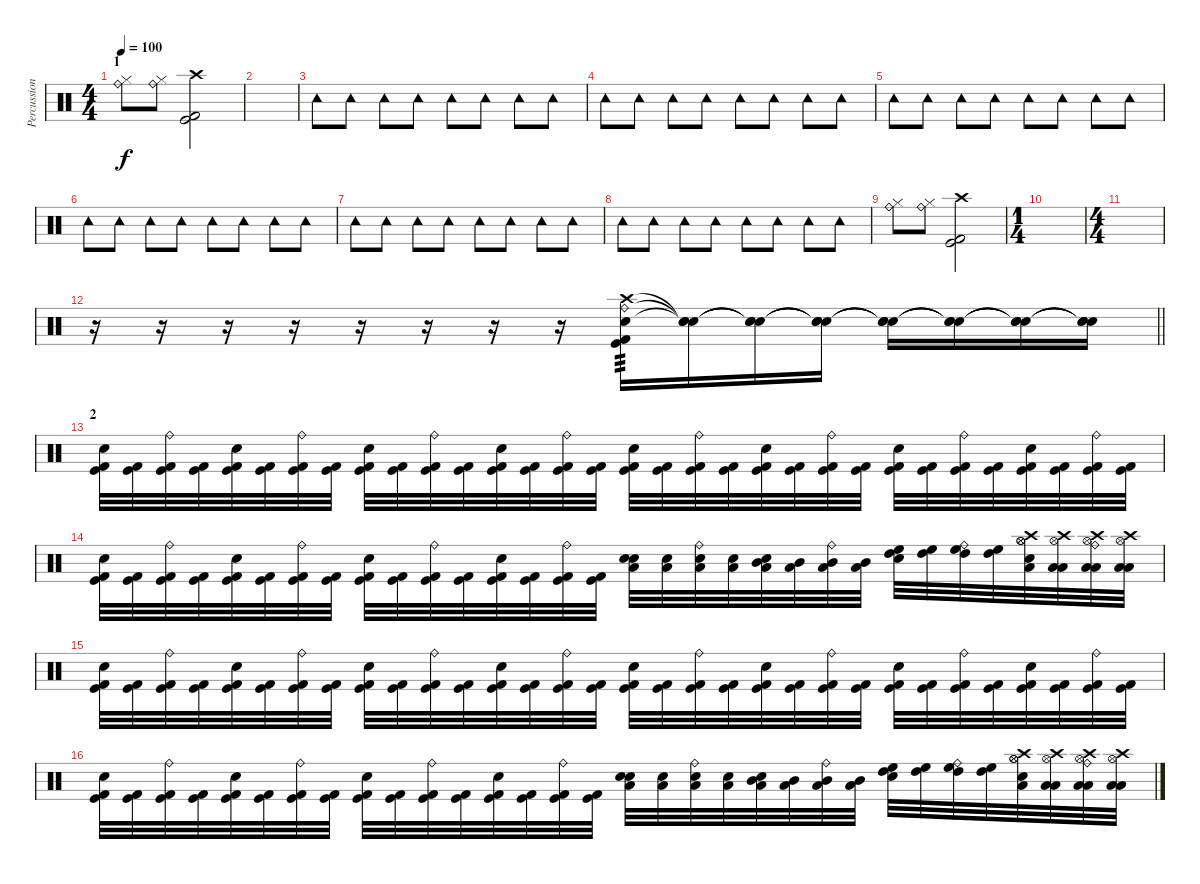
\track ("Percussion" "Percussion") {instrument percussion}
\staff {score}
\articulation defaults
\ts (4 4)
\section ("" "1")
\tempo 100
\clef neutral
\ks c
("Ride (bell)" "Hi-Hat (closed)").8{dy f} ("Ride (bell)" "Hi-Hat (closed)").8 ("Crash high (hit)" "Kick (hit)" "Kick (hit) 2").2 |
|
"Tambourine (hit)".8 "Tambourine (hit)".8 "Tambourine (hit)".8 "Tambourine (hit)".8 "Tambourine (hit)".8 "Tambourine (hit)".8 "Tambourine (hit)".8 "Tambourine (hit)".8 |
"Tambourine (hit)".8 "Tambourine (hit)".8 "Tambourine (hit)".8 "Tambourine (hit)".8 "Tambourine (hit)".8 "Tambourine (hit)".8 "Tambourine (hit)".8 "Tambourine (hit)".8 |
"Tambourine (hit)".8 "Tambourine (hit)".8 "Tambourine (hit)".8 "Tambourine (hit)".8 "Tambourine (hit)".8 "Tambourine (hit)".8 "Tambourine (hit)".8 "Tambourine (hit)".8 |
"Tambourine (hit)".8 "Tambourine (hit)".8 "Tambourine (hit)".8 "Tambourine (hit)".8 "Tambourine (hit)".8 "Tambourine (hit)".8 "Tambourine (hit)".8 "Tambourine (hit)".8 |
"Tambourine (hit)".8 "Tambourine (hit)".8 "Tambourine (hit)".8 "Tambourine (hit)".8 "Tambourine (hit)".8 "Tambourine (hit)".8 "Tambourine (hit)".8 "Tambourine (hit)".8 |
"Tambourine (hit)".8 "Tambourine (hit)".8 "Tambourine (hit)".8 "Tambourine (hit)".8 "Tambourine (hit)".8 "Tambourine (hit)".8 "Tambourine (hit)".8 "Tambourine (hit)".8 |
("Ride (bell)" "Hi-Hat (closed)").8 ("Ride (bell)" "Hi-Hat (closed)").8 ("Crash high (hit)" "Kick (hit)" "Kick (hit) 2").2 |
\ts (1 4)
|
\ts (4 4)
|
\barLineRight lightlight
r.16 r.16 r.16 r.16 r.16 r.16 r.16 r.16 ("Ride (bell)" "Crash high (hit)" "Snare (hit) 2" "Kick (hit) 2" "Kick (hit)").16{tp 3} ("Snare (hit)"{t} "Snare (hit)"{t} "Snare (hit)"{t}).16 ("Snare (hit)"{t} "Snare (hit)"{t} "Snare (hit)"{t}).16 ("Snare (hit)"{t} "Snare (hit)"{t} "Snare (hit)"{t}).16 ("Snare (hit)"{t} "Snare (hit)"{t} "Snare (hit)"{t}).16 ("Snare (hit)"{t} "Snare (hit)"{t} "Snare (hit)"{t}).16 ("Snare (hit)"{t} "Snare (hit)"{t} "Snare (hit)"{t}).16 ("Snare (hit)"{t} "Snare (hit)"{t} "Snare (hit)"{t}).16 |
\section ("" "2")
("Snare (hit) 2" "Kick (hit) 2" "Kick (hit)").32 ("Kick (hit) 2" "Kick (hit)").32 ("Ride (bell)" "Kick (hit) 2" "Kick (hit)").32 ("Kick (hit) 2" "Kick (hit)").32 ("Electric Snare (hit)" "Kick (hit) 2" "Kick (hit)").32 ("Kick (hit) 2" "Kick (hit)").32 ("Ride (bell)" "Kick (hit) 2" "Kick (hit)").32 ("Kick (hit) 2" "Kick (hit)").32 ("Electric Snare (hit)" "Kick (hit) 2" "Kick (hit)").32 ("Kick (hit) 2" "Kick (hit)").32 ("Ride (bell)" "Kick (hit) 2" "Kick (hit)").32 ("Kick (hit) 2" "Kick (hit)").32 ("Electric Snare (hit)" "Kick (hit) 2" "Kick (hit)").32 ("Kick (hit) 2" "Kick (hit)").32 ("Ride (bell)" "Kick (hit) 2" "Kick (hit)").32 ("Kick (hit) 2" "Kick (hit)").32 ("Snare (hit) 2" "Kick (hit) 2" "Kick (hit)").32 ("Kick (hit) 2" "Kick (hit)").32 ("Ride (bell)" "Kick (hit) 2" "Kick (hit)").32 ("Kick (hit) 2" "Kick (hit)").32 ("Electric Snare (hit)" "Kick (hit) 2" "Kick (hit)").32 ("Kick (hit) 2" "Kick (hit)").32 ("Ride (bell)" "Kick (hit) 2" "Kick (hit)").32 ("Kick (hit) 2" "Kick (hit)").32 ("Electric Snare (hit)" "Kick (hit) 2" "Kick (hit)").32 ("Kick (hit) 2" "Kick (hit)").32 ("Ride (bell)" "Kick (hit) 2" "Kick (hit)").32 ("Kick (hit) 2" "Kick (hit)").32 ("Electric Snare (hit)" "Kick (hit) 2" "Kick (hit)").32 ("Kick (hit) 2" "Kick (hit)").32 ("Ride (bell)" "Kick (hit) 2" "Kick (hit)").32 ("Kick (hit) 2" "Kick (hit)").32 |
("Snare (hit) 2" "Kick (hit) 2" "Kick (hit)").32 ("Kick (hit) 2" "Kick (hit)").32 ("Ride (bell)" "Kick (hit) 2" "Kick (hit)").32 ("Kick (hit) 2" "Kick (hit)").32 ("Electric Snare (hit)" "Kick (hit) 2" "Kick (hit)").32 ("Kick (hit) 2" "Kick (hit)").32 ("Ride (bell)" "Kick (hit) 2" "Kick (hit)").32 ("Kick (hit) 2" "Kick (hit)").32 ("Electric Snare (hit)" "Kick (hit) 2" "Kick (hit)").32 ("Kick (hit) 2" "Kick (hit)").32 ("Ride (bell)" "Kick (hit) 2" "Kick (hit)").32 ("Kick (hit) 2" "Kick (hit)").32 ("Electric Snare (hit)" "Kick (hit) 2" "Kick (hit)").32 ("Kick (hit) 2" "Kick (hit)").32 ("Ride (bell)" "Kick (hit) 2" "Kick (hit)").32 ("Kick (hit) 2" "Kick (hit)").32 ("Snare (hit) 2" "Low Floor Tom (hit)" "Electric Snare (hit)").32 ("Low Floor Tom (hit)" "Electric Snare (hit)").32 ("Ride (bell)" "Low Floor Tom (hit)" "Electric Snare (hit)").32 ("Low Floor Tom (hit)" "Electric Snare (hit)").32 ("Electric Snare (hit)" "Mid Tom (hit)" "Low Tom (hit)").32 ("Mid Tom (hit)" "Low Tom (hit)").32 ("Ride (bell)" "Mid Tom (hit)" "Low Tom (hit)").32 ("Mid Tom (hit)" "Low Tom (hit)").32 ("Electric Snare (hit)" "High Tom (hit)" "High Floor Tom (hit)").32 ("High Tom (hit)" "High Floor Tom (hit)").32 ("Ride (bell)" "High Tom (hit)" "High Floor Tom (hit)").32 ("High Tom (hit)" "High Floor Tom (hit)").32 ("Electric Snare (hit)" "Crash high (hit)" "Hi-Hat (open)" "Hi-Hat (open)" "Low Tom (hit)").32 ("Crash high (hit)" "Hi-Hat (open)" "Low Floor Tom (hit)" "Low Tom (hit)").32 ("Ride (bell)" "Crash high (hit)" "Hi-Hat (open)" "Low Floor Tom (hit)" "Low Tom (hit)").32 ("Crash high (hit)" "Hi-Hat (open)" "Low Floor Tom (hit)" "Low Tom (hit)").32 |
("Snare (hit) 2" "Kick (hit) 2" "Kick (hit)").32 ("Kick (hit) 2" "Kick (hit)").32 ("Ride (bell)" "Kick (hit) 2" "Kick (hit)").32 ("Kick (hit) 2" "Kick (hit)").32 ("Electric Snare (hit)" "Kick (hit) 2" "Kick (hit)").32 ("Kick (hit) 2" "Kick (hit)").32 ("Ride (bell)" "Kick (hit) 2" "Kick (hit)").32 ("Kick (hit) 2" "Kick (hit)").32 ("Electric Snare (hit)" "Kick (hit) 2" "Kick (hit)").32 ("Kick (hit) 2" "Kick (hit)").32 ("Ride (bell)" "Kick (hit) 2" "Kick (hit)").32 ("Kick (hit) 2" "Kick (hit)").32 ("Electric Snare (hit)" "Kick (hit) 2" "Kick (hit)").32 ("Kick (hit) 2" "Kick (hit)").32 ("Ride (bell)" "Kick (hit) 2" "Kick (hit)").32 ("Kick (hit) 2" "Kick (hit)").32 ("Snare (hit) 2" "Kick (hit) 2" "Kick (hit)").32 ("Kick (hit) 2" "Kick (hit)").32 ("Ride (bell)" "Kick (hit) 2" "Kick (hit)").32 ("Kick (hit) 2" "Kick (hit)").32 ("Electric Snare (hit)" "Kick (hit) 2" "Kick (hit)").32 ("Kick (hit) 2" "Kick (hit)").32 ("Ride (bell)" "Kick (hit) 2" "Kick (hit)").32 ("Kick (hit) 2" "Kick (hit)").32 ("Electric Snare (hit)" "Kick (hit) 2" "Kick (hit)").32 ("Kick (hit) 2" "Kick (hit)").32 ("Ride (bell)" "Kick (hit) 2" "Kick (hit)").32 ("Kick (hit) 2" "Kick (hit)").32 ("Electric Snare (hit)" "Kick (hit) 2" "Kick (hit)").32 ("Kick (hit) 2" "Kick (hit)").32 ("Ride (bell)" "Kick (hit) 2" "Kick (hit)").32 ("Kick (hit) 2" "Kick (hit)").32 |
("Snare (hit) 2" "Kick (hit) 2" "Kick (hit)").32 ("Kick (hit) 2" "Kick (hit)").32 ("Ride (bell)" "Kick (hit) 2" "Kick (hit)").32 ("Kick (hit) 2" "Kick (hit)").32 ("Electric Snare (hit)" "Kick (hit) 2" "Kick (hit)").32 ("Kick (hit) 2" "Kick (hit)").32 ("Ride (bell)" "Kick (hit) 2" "Kick (hit)").32 ("Kick (hit) 2" "Kick (hit)").32 ("Electric Snare (hit)" "Kick (hit) 2" "Kick (hit)").32 ("Kick (hit) 2" "Kick (hit)").32 ("Ride (bell)" "Kick (hit) 2" "Kick (hit)").32 ("Kick (hit) 2" "Kick (hit)").32 ("Electric Snare (hit)" "Kick (hit) 2" "Kick (hit)").32 ("Kick (hit) 2" "Kick (hit)").32 ("Ride (bell)" "Kick (hit) 2" "Kick (hit)").32 ("Kick (hit) 2" "Kick (hit)").32 ("Snare (hit) 2" "Low Floor Tom (hit)" "Electric Snare (hit)").32 ("Low Floor Tom (hit)" "Electric Snare (hit)").32 ("Ride (bell)" "Low Floor Tom (hit)" "Electric Snare (hit)").32 ("Low Floor Tom (hit)" "Electric Snare (hit)").32 ("Electric Snare (hit)" "Mid Tom (hit)" "Low Tom (hit)").32 ("Mid Tom (hit)" "Low Tom (hit)").32 ("Ride (bell)" "Mid Tom (hit)" "Low Tom (hit)").32 ("Mid Tom (hit)" "Low Tom (hit)").32 ("Electric Snare (hit)" "High Tom (hit)" "High Floor Tom (hit)").32 ("High Tom (hit)" "High Floor Tom (hit)").32 ("Ride (bell)" "High Tom (hit)" "High Floor Tom (hit)").32 ("High Tom (hit)" "High Floor Tom (hit)").32 ("Electric Snare (hit)" "Crash high (hit)" "Hi-Hat (open)" "Hi-Hat (open)" "Low Tom (hit)").32 ("Crash high (hit)" "Hi-Hat (open)" "Low Floor Tom (hit)" "Low Tom (hit)").32 ("Ride (bell)" "Crash high (hit)" "Hi-Hat (open)" "Low Floor Tom (hit)" "Low Tom (hit)").32 ("Crash high (hit)" "Hi-Hat (open)" "Low Floor Tom (hit)" "Low Tom (hit)").32
